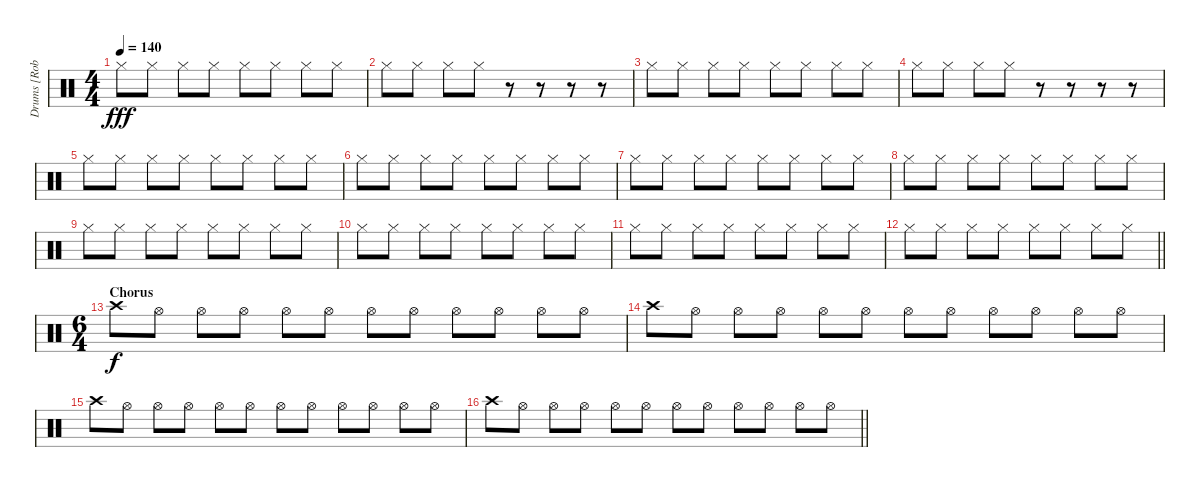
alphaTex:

\track ("Drums [Rob Bourdon]" "Drums [Rob") {instrument percussion}
\staff {score}
\articulation defaults
\ts (4 4)
\tempo 140
\clef neutral
\ks c "Hi-Hat (closed)".8{dy fff} "Hi-Hat (closed)".8 "Hi-Hat (closed)".8 "Hi-Hat (closed)".8 "Hi-Hat (closed)".8 "Hi-Hat (closed)".8 "Hi-Hat (closed)".8 "Hi-Hat (closed)".8
|
"Hi-Hat (closed)".8 "Hi-Hat (closed)".8 "Hi-Hat (closed)".8 "Hi-Hat (closed)".8 r.8 r.8 r.8 r.8 |
"Hi-Hat (closed)".8 "Hi-Hat (closed)".8 "Hi-Hat (closed)".8 "Hi-Hat (closed)".8 "Hi-Hat (closed)".8 "Hi-Hat (closed)".8 "Hi-Hat (closed)".8 "Hi-Hat (closed)".8 |
"Hi-Hat (closed)".8 "Hi-Hat (closed)".8 "Hi-Hat (closed)".8 "Hi-Hat (closed)".8 r.8 r.8 r.8 r.8 |
"Hi-Hat (closed)".8 "Hi-Hat (closed)".8 "Hi-Hat (closed)".8 "Hi-Hat (closed)".8 "Hi-Hat (closed)".8 "Hi-Hat (closed)".8 "Hi-Hat (closed)".8 "Hi-Hat (closed)".8 |
"Hi-Hat (closed)".8 "Hi-Hat (closed)".8 "Hi-Hat (closed)".8 "Hi-Hat (closed)".8 "Hi-Hat (closed)".8 "Hi-Hat (closed)".8 "Hi-Hat (closed)".8 "Hi-Hat (closed)".8 |
"Hi-Hat (closed)".8 "Hi-Hat (closed)".8 "Hi-Hat (closed)".8 "Hi-Hat (closed)".8 "Hi-Hat (closed)".8 "Hi-Hat (closed)".8 "Hi-Hat (closed)".8 "Hi-Hat (closed)".8 |
"Hi-Hat (closed)".8 "Hi-Hat (closed)".8 "Hi-Hat (closed)".8 "Hi-Hat (closed)".8 "Hi-Hat (closed)".8 "Hi-Hat (closed)".8 "Hi-Hat (closed)".8 "Hi-Hat (closed)".8 |
"Hi-Hat (closed)".8 "Hi-Hat (closed)".8 "Hi-Hat (closed)".8 "Hi-Hat (closed)".8 "Hi-Hat (closed)".8 "Hi-Hat (closed)".8 "Hi-Hat (closed)".8 "Hi-Hat (closed)".8 |
"Hi-Hat (closed)".8 "Hi-Hat (closed)".8 "Hi-Hat (closed)".8 "Hi-Hat (closed)".8 "Hi-Hat (closed)".8 "Hi-Hat (closed)".8 "Hi-Hat (closed)".8 "Hi-Hat (closed)".8 |
"Hi-Hat (closed)".8 "Hi-Hat (closed)".8 "Hi-Hat (closed)".8 "Hi-Hat (closed)".8 "Hi-Hat (closed)".8 "Hi-Hat (closed)".8 "Hi-Hat (closed)".8 "Hi-Hat (closed)".8 |
\barLineRight lightlight "Hi-Hat (closed)".8 "Hi-Hat (closed)".8 "Hi-Hat (closed)".8 "Hi-Hat (closed)".8 "Hi-Hat (closed)".8 "Hi-Hat (closed)".8 "Hi-Hat (closed)".8 "Hi-Hat (closed)".8
|
\ts (6 4)
\section ("" "Chorus")
"Crash high (hit)".8{dy f} "Hi-Hat (open)".8 "Hi-Hat (open)".8 "Hi-Hat (open)".8 "Hi-Hat (open)".8 "Hi-Hat (open)".8 "Hi-Hat (open)".8 "Hi-Hat (open)".8 "Hi-Hat (open)".8 "Hi-Hat (open)".8 "Hi-Hat (open)".8 "Hi-Hat (open)".8 |
"Crash high (hit)".8 "Hi-Hat (open)".8 "Hi-Hat (open)".8 "Hi-Hat (open)".8 "Hi-Hat (open)".8 "Hi-Hat (open)".8 "Hi-Hat (open)".8 "Hi-Hat (open)".8 "Hi-Hat (open)".8 "Hi-Hat (open)".8 "Hi-Hat (open)".8 "Hi-Hat (open)".8 |
"Crash high (hit)".8 "Hi-Hat (open)".8 "Hi-Hat (open)".8 "Hi-Hat (open)".8 "Hi-Hat (open)".8 "Hi-Hat (open)".8 "Hi-Hat (open)".8 "Hi-Hat (open)".8 "Hi-Hat (open)".8 "Hi-Hat (open)".8 "Hi-Hat (open)".8 "Hi-Hat (open)".8 |
\barLineRight lightlight "Crash high (hit)".8 "Hi-Hat (open)".8 "Hi-Hat (open)".8 "Hi-Hat (open)".8 "Hi-Hat (open)".8 "Hi-Hat (open)".8 "Hi-Hat (open)".8 "Hi-Hat (open)".8 "Hi-Hat (open)".8 "Hi-Hat (open)".8 "Hi-Hat (open)".8 "Hi-Hat (open)".8
